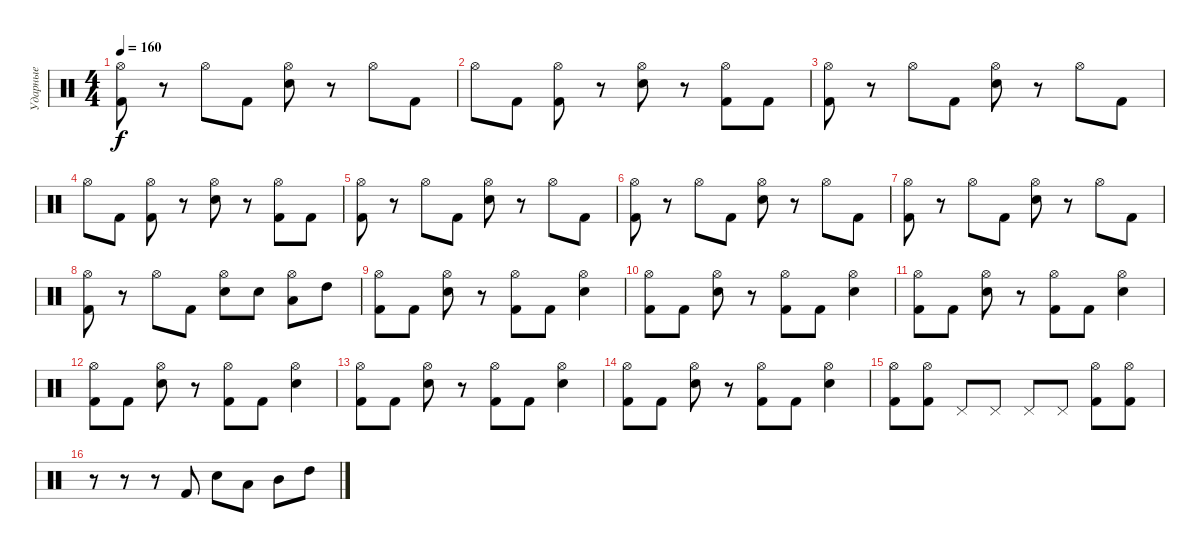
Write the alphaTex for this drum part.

\track ("Ударные" "Ударные") {instrument percussion}
\staff {score}
\articulation defaults
\ts (4 4)
\tempo 160
\clef neutral
\ks c
("Hi-Hat (open)" "Kick (hit) 2").8{dy f} r.8 "Hi-Hat (open)".8 "Kick (hit) 2".8 ("Hi-Hat (open)" "Electric Snare (hit)").8 r.8 "Hi-Hat (open)".8 "Kick (hit) 2".8 |
"Hi-Hat (open)".8 "Kick (hit) 2".8 ("Hi-Hat (open)" "Kick (hit) 2").8 r.8 ("Hi-Hat (open)" "Electric Snare (hit)").8 r.8 ("Hi-Hat (open)" "Kick (hit) 2").8 "Kick (hit) 2".8 |
("Hi-Hat (open)" "Kick (hit) 2").8 r.8 "Hi-Hat (open)".8 "Kick (hit) 2".8 ("Hi-Hat (open)" "Electric Snare (hit)").8 r.8 "Hi-Hat (open)".8 "Kick (hit) 2".8 |
"Hi-Hat (open)".8 "Kick (hit) 2".8 ("Hi-Hat (open)" "Kick (hit) 2").8 r.8 ("Hi-Hat (open)" "Electric Snare (hit)").8 r.8 ("Hi-Hat (open)" "Kick (hit) 2").8 "Kick (hit) 2".8 |
("Hi-Hat (open)" "Kick (hit) 2").8 r.8 "Hi-Hat (open)".8 "Kick (hit) 2".8 ("Hi-Hat (open)" "Electric Snare (hit)").8 r.8 "Hi-Hat (open)".8 "Kick (hit) 2".8 |
("Hi-Hat (open)" "Kick (hit) 2").8 r.8 "Hi-Hat (open)".8 "Kick (hit) 2".8 ("Hi-Hat (open)" "Electric Snare (hit)").8 r.8 "Hi-Hat (open)".8 "Kick (hit) 2".8 |
("Hi-Hat (open)" "Kick (hit) 2").8 r.8 "Hi-Hat (open)".8 "Kick (hit) 2".8 ("Hi-Hat (open)" "Electric Snare (hit)").8 r.8 "Hi-Hat (open)".8 "Kick (hit) 2".8 |
("Hi-Hat (open)" "Kick (hit) 2").8 r.8 "Hi-Hat (open)".8 "Kick (hit) 2".8 ("Hi-Hat (open)" "Electric Snare (hit)").8 "Electric Snare (hit)".8 ("Hi-Hat (open)" "Low Tom (hit)").8 "High Tom (hit)".8 |
("Hi-Hat (open)" "Kick (hit) 2").8 "Kick (hit) 2".8 ("Hi-Hat (open)" "Electric Snare (hit)").8 r.8 ("Hi-Hat (open)" "Kick (hit) 2").8 "Kick (hit) 2".8 ("Hi-Hat (open)" "Electric Snare (hit)").4 |
("Hi-Hat (open)" "Kick (hit) 2").8 "Kick (hit) 2".8 ("Hi-Hat (open)" "Electric Snare (hit)").8 r.8 ("Hi-Hat (open)" "Kick (hit) 2").8 "Kick (hit) 2".8 ("Hi-Hat (open)" "Electric Snare (hit)").4 |
("Hi-Hat (open)" "Kick (hit) 2").8 "Kick (hit) 2".8 ("Hi-Hat (open)" "Electric Snare (hit)").8 r.8 ("Hi-Hat (open)" "Kick (hit) 2").8 "Kick (hit) 2".8 ("Hi-Hat (open)" "Electric Snare (hit)").4 |
("Hi-Hat (open)" "Kick (hit) 2").8 "Kick (hit) 2".8 ("Hi-Hat (open)" "Electric Snare (hit)").8 r.8 ("Hi-Hat (open)" "Kick (hit) 2").8 "Kick (hit) 2".8 ("Hi-Hat (open)" "Electric Snare (hit)").4 |
("Hi-Hat (open)" "Kick (hit) 2").8 "Kick (hit) 2".8 ("Hi-Hat (open)" "Electric Snare (hit)").8 r.8 ("Hi-Hat (open)" "Kick (hit) 2").8 "Kick (hit) 2".8 ("Hi-Hat (open)" "Electric Snare (hit)").4 |
("Hi-Hat (open)" "Kick (hit) 2").8 "Kick (hit) 2".8 ("Hi-Hat (open)" "Electric Snare (hit)").8 r.8 ("Hi-Hat (open)" "Kick (hit) 2").8 "Kick (hit) 2".8 ("Hi-Hat (open)" "Electric Snare (hit)").4 |
("Hi-Hat (open)" "Kick (hit) 2").8 ("Hi-Hat (open)" "Kick (hit) 2").8 "Pedal Hi-Hat (hit)".8 "Pedal Hi-Hat (hit)".8 "Pedal Hi-Hat (hit)".8 "Pedal Hi-Hat (hit)".8 ("Hi-Hat (open)" "Kick (hit) 2").8 ("Hi-Hat (open)" "Kick (hit) 2").8 |
r.8 r.8 r.8 "Kick (hit) 2".8 "Electric Snare (hit)".8 "Low Tom (hit)".8 "Mid Tom (hit)".8 "High Tom (hit)".8
